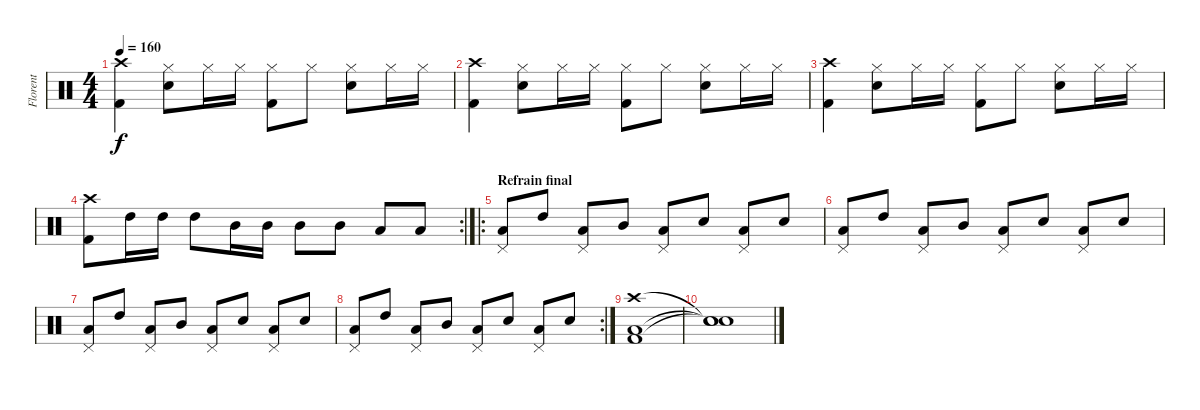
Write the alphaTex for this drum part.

\track ("Florent" "Florent") {instrument percussion}
\staff {score}
\articulation defaults
\ts (4 4)
\tempo 160
\clef neutral
\ks c
("Crash high (hit)" "Kick (hit) 2").4{dy f} ("Hi-Hat (closed)" "Snare (hit) 2").8 "Hi-Hat (closed)".16 "Hi-Hat (closed)".16 ("Hi-Hat (closed)" "Kick (hit) 2").8 "Hi-Hat (closed)".8 ("Hi-Hat (closed)" "Snare (hit) 2").8 "Hi-Hat (closed)".16 "Hi-Hat (closed)".16 |
("Crash high (hit)" "Kick (hit) 2").4 ("Hi-Hat (closed)" "Snare (hit) 2").8 "Hi-Hat (closed)".16 "Hi-Hat (closed)".16 ("Hi-Hat (closed)" "Kick (hit) 2").8 "Hi-Hat (closed)".8 ("Hi-Hat (closed)" "Snare (hit) 2").8 "Hi-Hat (closed)".16 "Hi-Hat (closed)".16 |
("Crash high (hit)" "Kick (hit) 2").4 ("Hi-Hat (closed)" "Snare (hit) 2").8 "Hi-Hat (closed)".16 "Hi-Hat (closed)".16 ("Hi-Hat (closed)" "Kick (hit) 2").8 "Hi-Hat (closed)".8 ("Hi-Hat (closed)" "Snare (hit) 2").8 "Hi-Hat (closed)".16 "Hi-Hat (closed)".16 |
\rc 2
("Crash high (hit)" "Kick (hit) 2").8 "High Tom (hit)".16 "High Tom (hit)".16 "High Tom (hit)".8 "Mid Tom (hit)".16 "Mid Tom (hit)".16 "Mid Tom (hit)".8 "Mid Tom (hit)".8 "Low Tom (hit)".8 "Low Tom (hit)".8 |
\ro
\section ("" "Refrain final")
("Low Tom (hit)" "Pedal Hi-Hat (hit)").8 "High Tom (hit)".8 ("Low Tom (hit)" "Pedal Hi-Hat (hit)").8 "Mid Tom (hit)".8 ("Low Tom (hit)" "Pedal Hi-Hat (hit)").8 "Snare (hit) 2".8 ("Low Tom (hit)" "Pedal Hi-Hat (hit)").8 "Snare (hit) 2".8 |
("Low Tom (hit)" "Pedal Hi-Hat (hit)").8 "High Tom (hit)".8 ("Low Tom (hit)" "Pedal Hi-Hat (hit)").8 "Mid Tom (hit)".8 ("Low Tom (hit)" "Pedal Hi-Hat (hit)").8 "Snare (hit) 2".8 ("Low Tom (hit)" "Pedal Hi-Hat (hit)").8 "Snare (hit) 2".8 |
("Low Tom (hit)" "Pedal Hi-Hat (hit)").8 "High Tom (hit)".8 ("Low Tom (hit)" "Pedal Hi-Hat (hit)").8 "Mid Tom (hit)".8 ("Low Tom (hit)" "Pedal Hi-Hat (hit)").8 "Snare (hit) 2".8 ("Low Tom (hit)" "Pedal Hi-Hat (hit)").8 "Snare (hit) 2".8 |
\rc 2
("Low Tom (hit)" "Pedal Hi-Hat (hit)").8 "High Tom (hit)".8 ("Low Tom (hit)" "Pedal Hi-Hat (hit)").8 "Mid Tom (hit)".8 ("Low Tom (hit)" "Pedal Hi-Hat (hit)").8 "Snare (hit) 2".8 ("Low Tom (hit)" "Pedal Hi-Hat (hit)").8 "Snare (hit) 2".8 |
("Crash high (hit)" "Low Tom (hit)" "Kick (hit) 2").1 |
("Snare (hit)"{t} "Snare (hit)"{t} "Snare (hit)"{t}).1
